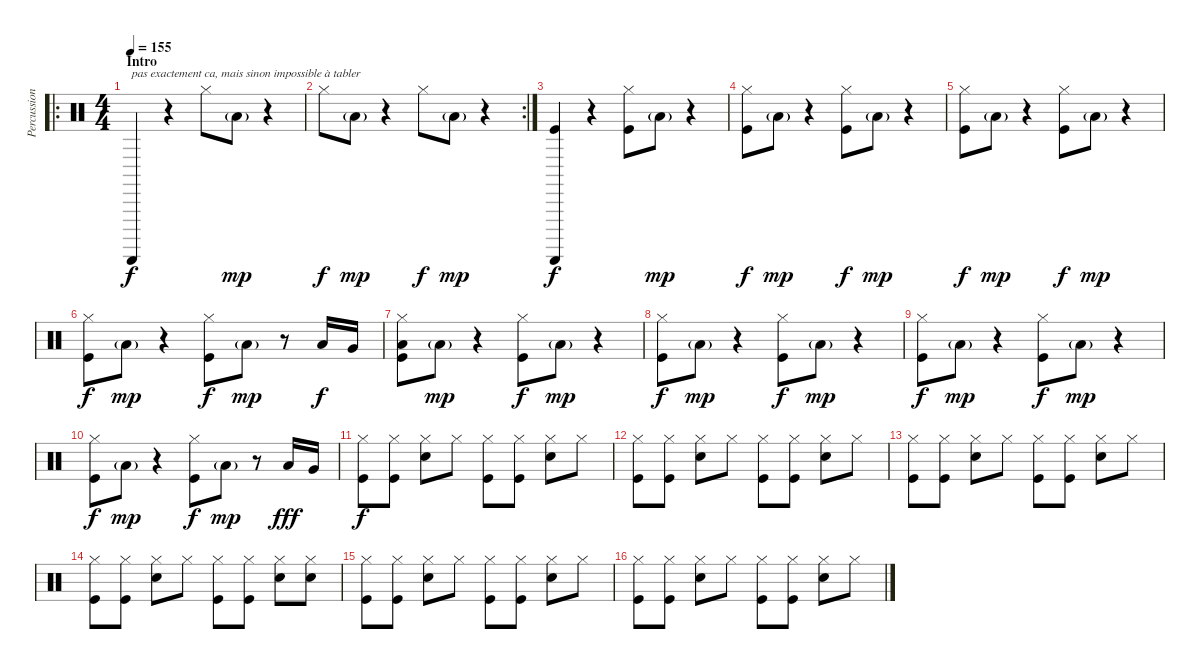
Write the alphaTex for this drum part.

\track ("Percussions" "Percussion") {instrument percussion}
\staff {score}
\articulation defaults
\ro
\ts (4 4)
\section ("" "Intro")
\tempo 155
\clef neutral
\ks c "Guiro (scrap-return)".4{txt "pas exactement ca, mais sinon impossible à tabler" dy f}
r.4 "Hi-Hat (closed)".8 "Low Floor Tom (hit)"{g}.8{dy mp} r.4 |
\rc 2 "Hi-Hat (closed)".8{dy f} "Low Floor Tom (hit)"{g}.8{dy mp}
r.4 "Hi-Hat (closed)".8{dy f} "Low Floor Tom (hit)"{g}.8{dy mp} r.4 |
("Guiro (scrap-return)" "Kick (hit)").4{dy f} r.4 ("Hi-Hat (closed)" "Kick (hit)").8 "Low Floor Tom (hit)"{g}.8{dy mp} r.4 |
("Hi-Hat (closed)" "Kick (hit)").8{dy f} "Low Floor Tom (hit)"{g}.8{dy mp} r.4 ("Hi-Hat (closed)" "Kick (hit)").8{dy f} "Low Floor Tom (hit)"{g}.8{dy mp} r.4 |
("Hi-Hat (closed)" "Kick (hit)").8{dy f} "Low Floor Tom (hit)"{g}.8{dy mp} r.4 ("Hi-Hat (closed)" "Kick (hit)").8{dy f} "Low Floor Tom (hit)"{g}.8{dy mp} r.4 |
("Hi-Hat (closed)" "Kick (hit)").8{dy f} "Low Floor Tom (hit)"{g}.8{dy mp} r.4 ("Hi-Hat (closed)" "Kick (hit)").8{dy f} "Low Floor Tom (hit)"{g}.8{dy mp} r.8 "Low Tom (hit)".16{dy f} "Very Low Tom (hit)".16 |
("Hi-Hat (closed)" "Low Floor Tom (hit)" "Kick (hit)").8 "Low Floor Tom (hit)"{g}.8{dy mp} r.4 ("Hi-Hat (closed)" "Kick (hit)").8{dy f} "Low Floor Tom (hit)"{g}.8{dy mp} r.4 |
("Hi-Hat (closed)" "Kick (hit)").8{dy f} "Low Floor Tom (hit)"{g}.8{dy mp} r.4 ("Hi-Hat (closed)" "Kick (hit)").8{dy f} "Low Floor Tom (hit)"{g}.8{dy mp} r.4 |
("Hi-Hat (closed)" "Kick (hit)").8{dy f} "Low Floor Tom (hit)"{g}.8{dy mp} r.4 ("Hi-Hat (closed)" "Kick (hit)").8{dy f} "Low Floor Tom (hit)"{g}.8{dy mp} r.4 |
("Hi-Hat (closed)" "Kick (hit)").8{dy f} "Low Floor Tom (hit)"{g}.8{dy mp} r.4 ("Hi-Hat (closed)" "Kick (hit)").8{dy f} "Low Floor Tom (hit)"{g}.8{dy mp} r.8 "Low Tom (hit)".16{dy fff} "Very Low Tom (hit)".16 |
("Hi-Hat (closed)" "Kick (hit)").8{dy f} ("Hi-Hat (closed)" "Kick (hit)").8 ("Hi-Hat (closed)" "Snare (hit) 2").8 "Hi-Hat (closed)".8 ("Hi-Hat (closed)" "Kick (hit)").8 ("Hi-Hat (closed)" "Kick (hit)").8 ("Hi-Hat (closed)" "Snare (hit) 2").8 "Hi-Hat (closed)".8 |
("Hi-Hat (closed)" "Kick (hit)").8 ("Hi-Hat (closed)" "Kick (hit)").8 ("Hi-Hat (closed)" "Snare (hit) 2").8 "Hi-Hat (closed)".8 ("Hi-Hat (closed)" "Kick (hit)").8 ("Hi-Hat (closed)" "Kick (hit)").8 ("Hi-Hat (closed)" "Snare (hit) 2").8 "Hi-Hat (closed)".8 |
("Hi-Hat (closed)" "Kick (hit)").8 ("Hi-Hat (closed)" "Kick (hit)").8 ("Hi-Hat (closed)" "Snare (hit) 2").8 "Hi-Hat (closed)".8 ("Hi-Hat (closed)" "Kick (hit)").8 ("Hi-Hat (closed)" "Kick (hit)").8 ("Hi-Hat (closed)" "Snare (hit) 2").8 "Hi-Hat (closed)".8 |
("Hi-Hat (closed)" "Kick (hit)").8 ("Hi-Hat (closed)" "Kick (hit)").8 ("Hi-Hat (closed)" "Snare (hit) 2").8 "Hi-Hat (closed)".8 ("Hi-Hat (closed)" "Kick (hit)").8 ("Hi-Hat (closed)" "Kick (hit)").8 ("Hi-Hat (closed)" "Snare (hit) 2").8 ("Hi-Hat (closed)" "Electric Snare (hit)").8 |
("Hi-Hat (closed)" "Kick (hit)").8 ("Hi-Hat (closed)" "Kick (hit)").8 ("Hi-Hat (closed)" "Snare (hit) 2").8 "Hi-Hat (closed)".8 ("Hi-Hat (closed)" "Kick (hit)").8 ("Hi-Hat (closed)" "Kick (hit)").8 ("Hi-Hat (closed)" "Snare (hit) 2").8 "Hi-Hat (closed)".8 |
("Hi-Hat (closed)" "Kick (hit)").8 ("Hi-Hat (closed)" "Kick (hit)").8 ("Hi-Hat (closed)" "Snare (hit) 2").8 "Hi-Hat (closed)".8 ("Hi-Hat (closed)" "Kick (hit)").8 ("Hi-Hat (closed)" "Kick (hit)").8 ("Hi-Hat (closed)" "Snare (hit) 2").8 "Hi-Hat (closed)".8
